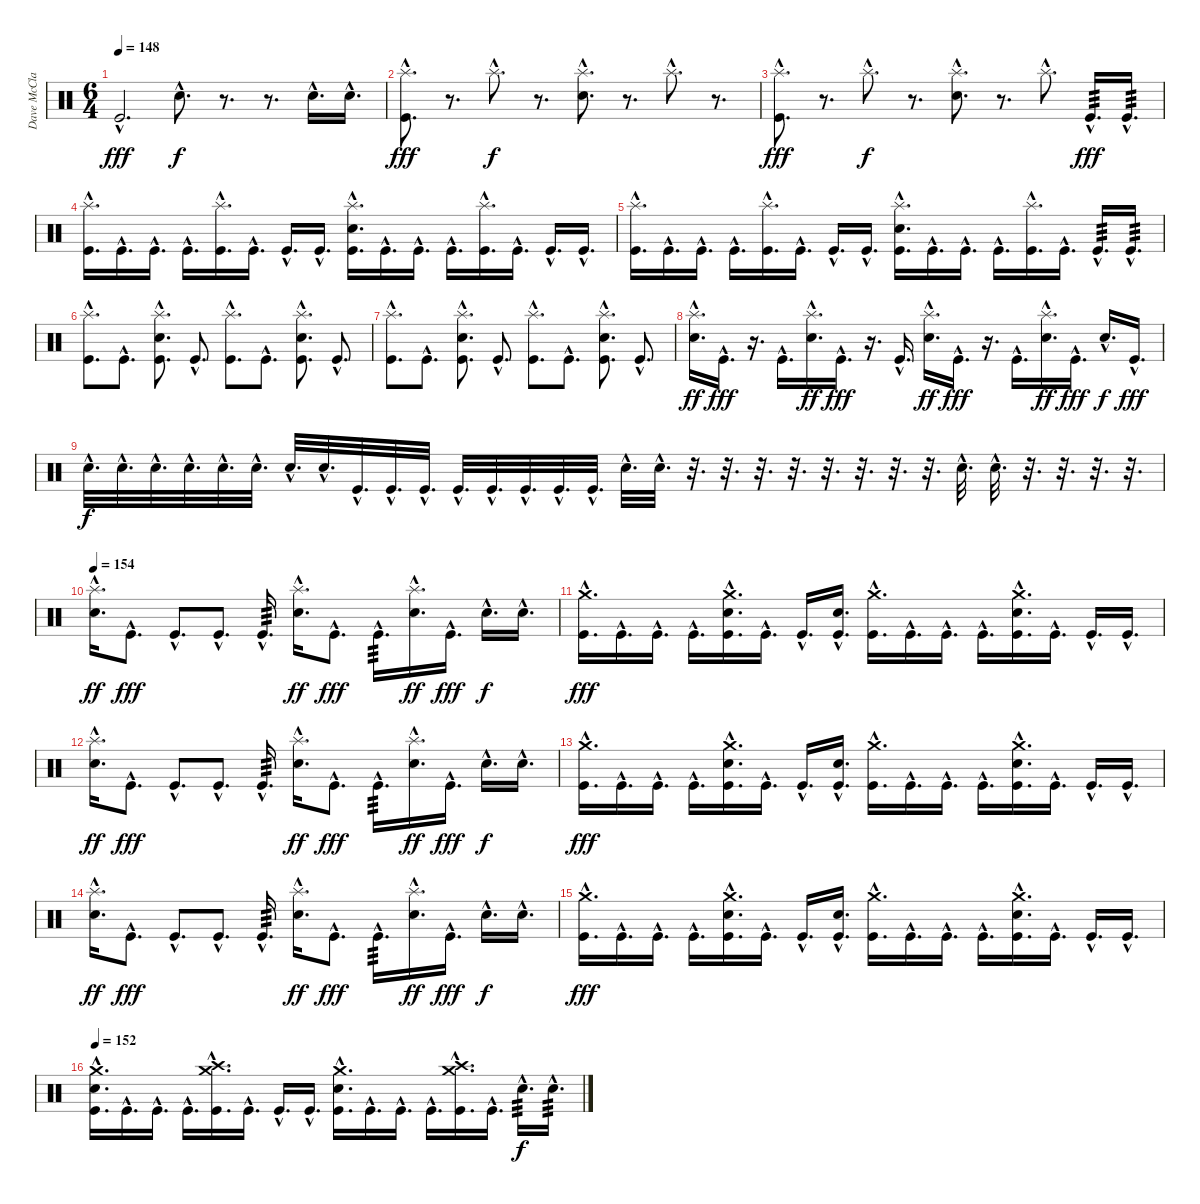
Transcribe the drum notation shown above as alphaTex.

\track ("Dave McClain" "Dave McCla") {instrument percussion}
\staff {score}
\articulation defaults
\ts (6 4)
\tempo 148
\clef neutral
\ks c "Kick (hit)"{hac}.2{d dy fff} "Electric Snare (hit)"{hac}.8{d dy f}
r.8{d} r.8{d} "Electric Snare (hit)"{hac}.16{d} "Electric Snare (hit)"{hac}.16{d} |
("Splash (hit)"{hac} "Kick (hit)"{hac}).8{d dy fff} r.8{d} "Splash (hit)"{hac}.8{d dy f} r.8{d} ("Splash (hit)"{hac} "Electric Snare (hit)"{hac}).8{d} r.8{d} "Splash (hit)"{hac}.8{d} r.8{d} |
("Splash (hit)"{hac} "Kick (hit)"{hac}).8{d dy fff} r.8{d} "Splash (hit)"{hac}.8{d dy f} r.8{d} ("Splash (hit)"{hac} "Electric Snare (hit)"{hac}).8{d} r.8{d} "Splash (hit)"{hac}.8{d} "Kick (hit)"{hac}.16{d tp 3 dy fff} "Kick (hit)"{hac}.16{d tp 3} |
("Splash (hit)"{hac} "Kick (hit)"{hac}).16{d} "Kick (hit)"{hac}.16{d} "Kick (hit)"{hac}.16{d} "Kick (hit)"{hac}.16{d} ("Splash (hit)"{hac} "Kick (hit)"{hac}).16{d} "Kick (hit)"{hac}.16{d} "Kick (hit)"{hac}.16{d} "Kick (hit)"{hac}.16{d} ("Splash (hit)"{hac} "Electric Snare (hit)"{hac} "Kick (hit)"{hac}).16{d} "Kick (hit)"{hac}.16{d} "Kick (hit)"{hac}.16{d} "Kick (hit)"{hac}.16{d} ("Splash (hit)"{hac} "Kick (hit)"{hac}).16{d} "Kick (hit)"{hac}.16{d} "Kick (hit)"{hac}.16{d} "Kick (hit)"{hac}.16{d} |
("Splash (hit)"{hac} "Kick (hit)"{hac}).16{d} "Kick (hit)"{hac}.16{d} "Kick (hit)"{hac}.16{d} "Kick (hit)"{hac}.16{d} ("Splash (hit)"{hac} "Kick (hit)"{hac}).16{d} "Kick (hit)"{hac}.16{d} "Kick (hit)"{hac}.16{d} "Kick (hit)"{hac}.16{d} ("Splash (hit)"{hac} "Electric Snare (hit)"{hac} "Kick (hit)"{hac}).16{d} "Kick (hit)"{hac}.16{d} "Kick (hit)"{hac}.16{d} "Kick (hit)"{hac}.16{d} ("Splash (hit)"{hac} "Kick (hit)"{hac}).16{d} "Kick (hit)"{hac}.16{d} "Kick (hit)"{hac}.16{d tp 3} "Kick (hit)"{hac}.16{d tp 3} |
("Splash (hit)"{hac} "Kick (hit)"{hac}).8{d} "Kick (hit)"{hac}.8{d} ("Splash (hit)"{hac} "Electric Snare (hit)"{hac} "Kick (hit)"{hac}).8{d} "Kick (hit)"{hac}.8{d} ("Splash (hit)"{hac} "Kick (hit)"{hac}).8{d} "Kick (hit)"{hac}.8{d} ("Splash (hit)"{hac} "Electric Snare (hit)"{hac} "Kick (hit)"{hac}).8{d} "Kick (hit)"{hac}.8{d} |
("Splash (hit)"{hac} "Kick (hit)"{hac}).8{d} "Kick (hit)"{hac}.8{d} ("Splash (hit)"{hac} "Electric Snare (hit)"{hac} "Kick (hit)"{hac}).8{d} "Kick (hit)"{hac}.8{d} ("Splash (hit)"{hac} "Kick (hit)"{hac}).8{d} "Kick (hit)"{hac}.8{d} ("Splash (hit)"{hac} "Electric Snare (hit)"{hac} "Kick (hit)"{hac}).8{d} "Kick (hit)"{hac}.8{d} |
("Splash (hit)"{hac} "Electric Snare (hit)"{hac}).16{d dy ff} "Kick (hit)"{hac}.16{d dy fff} r.16{d} "Kick (hit)"{hac}.16{d} ("Splash (hit)"{hac} "Electric Snare (hit)"{hac}).16{d dy ff} "Kick (hit)"{hac}.16{d dy fff} r.16{d} "Kick (hit)"{hac}.16{d} ("Splash (hit)"{hac} "Electric Snare (hit)"{hac}).16{d dy ff} "Kick (hit)"{hac}.16{d dy fff} r.16{d} "Kick (hit)"{hac}.16{d} ("Splash (hit)"{hac} "Electric Snare (hit)"{hac}).16{d dy ff} "Kick (hit)"{hac}.16{d dy fff} "Electric Snare (hit)"{hac}.16{d dy f} "Kick (hit)"{hac}.16{d dy fff} |
"Electric Snare (hit)"{hac}.32{d dy f} "Electric Snare (hit)"{hac}.32{d} "Electric Snare (hit)"{hac}.32{d} "Electric Snare (hit)"{hac}.32{d} "Electric Snare (hit)"{hac}.32{d} "Electric Snare (hit)"{hac}.32{d} "Electric Snare (hit)"{hac}.32{d} "Electric Snare (hit)"{hac}.32{d} "Kick (hit)"{hac}.32{d} "Kick (hit)"{hac}.32{d} "Kick (hit)"{hac}.32{d} "Kick (hit)"{hac}.32{d} "Kick (hit)"{hac}.32{d} "Kick (hit)"{hac}.32{d} "Kick (hit)"{hac}.32{d} "Kick (hit)"{hac}.32{d} "Electric Snare (hit)"{hac}.32{d} "Electric Snare (hit)"{hac}.32{d} r.32{d} r.32{d} r.32{d} r.32{d} r.32{d} r.32{d} r.32{d} r.32{d} "Electric Snare (hit)"{hac}.32{d} "Electric Snare (hit)"{hac}.32{d} r.32{d} r.32{d} r.32{d} r.32{d} |
\tempo 154
("Splash (hit)"{hac} "Electric Snare (hit)"{hac}).16{d dy ff} "Kick (hit)"{hac}.8{d dy fff} "Kick (hit)"{hac}.8{d} "Kick (hit)"{hac}.8{d} "Kick (hit)"{hac}.16{d tp 3} ("Splash (hit)"{hac} "Electric Snare (hit)"{hac}).16{d dy ff} "Kick (hit)"{hac}.8{d dy fff} "Kick (hit)"{hac}.16{d tp 3} ("Splash (hit)"{hac} "Electric Snare (hit)"{hac}).16{d dy ff} "Kick (hit)"{hac}.16{d dy fff} "Electric Snare (hit)"{hac}.16{d dy f} "Electric Snare (hit)"{hac}.16{d} |
("Crash medium (hit)"{hac} "Kick (hit)"{hac}).16{d dy fff} "Kick (hit)"{hac}.16{d} "Kick (hit)"{hac}.16{d} "Kick (hit)"{hac}.16{d} ("Crash medium (hit)"{hac} "Electric Snare (hit)"{hac} "Kick (hit)"{hac}).16{d} "Kick (hit)"{hac}.16{d} "Kick (hit)"{hac}.16{d} ("Electric Snare (hit)"{hac} "Kick (hit)"{hac}).16{d} ("Crash medium (hit)"{hac} "Kick (hit)"{hac}).16{d} "Kick (hit)"{hac}.16{d} "Kick (hit)"{hac}.16{d} "Kick (hit)"{hac}.16{d} ("Crash medium (hit)"{hac} "Electric Snare (hit)"{hac} "Kick (hit)"{hac}).16{d} "Kick (hit)"{hac}.16{d} "Kick (hit)"{hac}.16{d} "Kick (hit)"{hac}.16{d} |
("Splash (hit)"{hac} "Electric Snare (hit)"{hac}).16{d dy ff} "Kick (hit)"{hac}.8{d dy fff} "Kick (hit)"{hac}.8{d} "Kick (hit)"{hac}.8{d} "Kick (hit)"{hac}.16{d tp 3} ("Splash (hit)"{hac} "Electric Snare (hit)"{hac}).16{d dy ff} "Kick (hit)"{hac}.8{d dy fff} "Kick (hit)"{hac}.16{d tp 3} ("Splash (hit)"{hac} "Electric Snare (hit)"{hac}).16{d dy ff} "Kick (hit)"{hac}.16{d dy fff} "Electric Snare (hit)"{hac}.16{d dy f} "Electric Snare (hit)"{hac}.16{d} |
("Crash medium (hit)"{hac} "Kick (hit)"{hac}).16{d dy fff} "Kick (hit)"{hac}.16{d} "Kick (hit)"{hac}.16{d} "Kick (hit)"{hac}.16{d} ("Crash medium (hit)"{hac} "Electric Snare (hit)"{hac} "Kick (hit)"{hac}).16{d} "Kick (hit)"{hac}.16{d} "Kick (hit)"{hac}.16{d} ("Electric Snare (hit)"{hac} "Kick (hit)"{hac}).16{d} ("Crash medium (hit)"{hac} "Kick (hit)"{hac}).16{d} "Kick (hit)"{hac}.16{d} "Kick (hit)"{hac}.16{d} "Kick (hit)"{hac}.16{d} ("Crash medium (hit)"{hac} "Electric Snare (hit)"{hac} "Kick (hit)"{hac}).16{d} "Kick (hit)"{hac}.16{d} "Kick (hit)"{hac}.16{d} "Kick (hit)"{hac}.16{d} |
("Splash (hit)"{hac} "Electric Snare (hit)"{hac}).16{d dy ff} "Kick (hit)"{hac}.8{d dy fff} "Kick (hit)"{hac}.8{d} "Kick (hit)"{hac}.8{d} "Kick (hit)"{hac}.16{d tp 3} ("Splash (hit)"{hac} "Electric Snare (hit)"{hac}).16{d dy ff} "Kick (hit)"{hac}.8{d dy fff} "Kick (hit)"{hac}.16{d tp 3} ("Splash (hit)"{hac} "Electric Snare (hit)"{hac}).16{d dy ff} "Kick (hit)"{hac}.16{d dy fff} "Electric Snare (hit)"{hac}.16{d dy f} "Electric Snare (hit)"{hac}.16{d} |
("Crash medium (hit)"{hac} "Kick (hit)"{hac}).16{d dy fff} "Kick (hit)"{hac}.16{d} "Kick (hit)"{hac}.16{d} "Kick (hit)"{hac}.16{d} ("Crash medium (hit)"{hac} "Electric Snare (hit)"{hac} "Kick (hit)"{hac}).16{d} "Kick (hit)"{hac}.16{d} "Kick (hit)"{hac}.16{d} ("Electric Snare (hit)"{hac} "Kick (hit)"{hac}).16{d} ("Crash medium (hit)"{hac} "Kick (hit)"{hac}).16{d} "Kick (hit)"{hac}.16{d} "Kick (hit)"{hac}.16{d} "Kick (hit)"{hac}.16{d} ("Crash medium (hit)"{hac} "Electric Snare (hit)"{hac} "Kick (hit)"{hac}).16{d} "Kick (hit)"{hac}.16{d} "Kick (hit)"{hac}.16{d} "Kick (hit)"{hac}.16{d} |
\tempo 152
("Crash medium (hit)"{hac} "Electric Snare (hit)"{hac} "Kick (hit)"{hac}).16{d} "Kick (hit)"{hac}.16{d} "Kick (hit)"{hac}.16{d} "Kick (hit)"{hac}.16{d} ("Crash medium (hit)"{hac} "Crash high (hit)"{hac} "Kick (hit)"{hac}).16{d} "Kick (hit)"{hac}.16{d} "Kick (hit)"{hac}.16{d} "Kick (hit)"{hac}.16{d} ("Crash medium (hit)"{hac} "Electric Snare (hit)"{hac} "Kick (hit)"{hac}).16{d} "Kick (hit)"{hac}.16{d} "Kick (hit)"{hac}.16{d} "Kick (hit)"{hac}.16{d} ("Crash medium (hit)"{hac} "Crash high (hit)"{hac} "Kick (hit)"{hac}).16{d} "Kick (hit)"{hac}.16{d} "Electric Snare (hit)"{hac}.16{d tp 3 dy f} "Electric Snare (hit)"{hac}.16{d tp 3}
